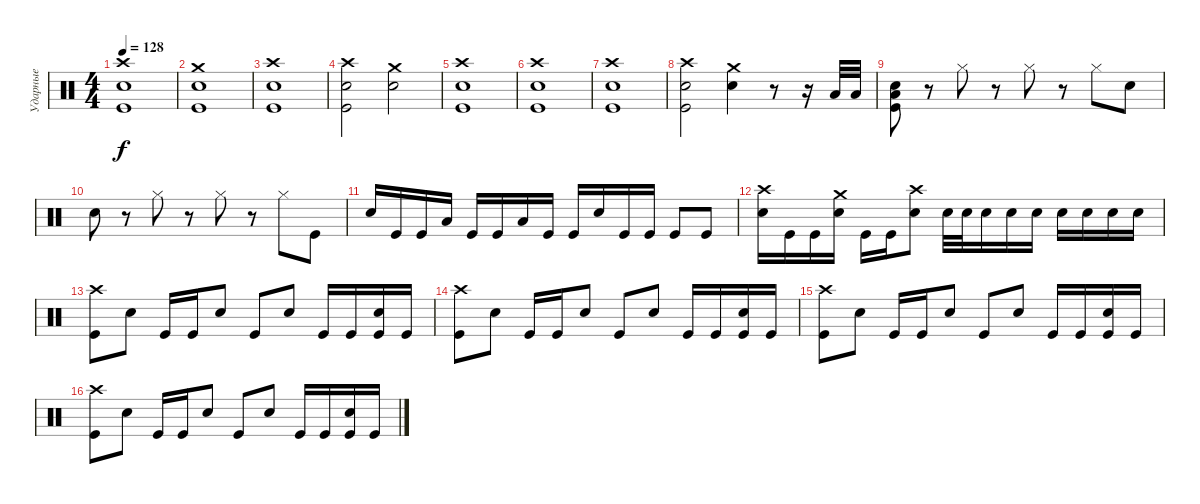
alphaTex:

\track ("Ударные" "Ударные") {instrument percussion}
\staff {score}
\articulation defaults
\ts (4 4)
\tempo 128
\clef neutral
\ks c
("Crash high (hit)" "Electric Snare (hit)" "Kick (hit)").1{dy f} |
("Crash medium (hit)" "Electric Snare (hit)" "Kick (hit)").1 |
("Crash high (hit)" "Electric Snare (hit)" "Kick (hit)").1 |
("Crash high (hit)" "Electric Snare (hit)" "Kick (hit)").2 ("Crash medium (hit)" "Electric Snare (hit)").2 |
("Crash high (hit)" "Electric Snare (hit)" "Kick (hit)").1 |
("Crash high (hit)" "Electric Snare (hit)" "Kick (hit)").1 |
("Crash high (hit)" "Electric Snare (hit)" "Kick (hit)").1 |
("Crash high (hit)" "Electric Snare (hit)" "Kick (hit)").2 ("Crash medium (hit)" "Electric Snare (hit)").4 r.8 r.16 "Low Tom (hit)".32 "Low Tom (hit)".32 |
("Electric Snare (hit)" "Low Tom (hit)" "Kick (hit)").8 r.8 "Hi-Hat (closed)".8 r.8 "Hi-Hat (closed)".8 r.8 "Hi-Hat (closed)".8 "Electric Snare (hit)".8 |
"Electric Snare (hit)".8 r.8 "Hi-Hat (closed)".8 r.8 "Hi-Hat (closed)".8 r.8 "Hi-Hat (closed)".8 "Kick (hit)".8 |
"Electric Snare (hit)".16 "Kick (hit)".16 "Kick (hit)".16 "Low Tom (hit)".16 "Kick (hit)".16 "Kick (hit)".16 "Low Tom (hit)".16 "Kick (hit)".16 "Kick (hit)".16 "Electric Snare (hit)".16 "Kick (hit)".16 "Kick (hit)".16 "Kick (hit)".8 "Kick (hit)".8 |
("Crash high (hit)" "Electric Snare (hit)").16 "Kick (hit)".16 "Kick (hit)".16 ("Crash medium (hit)" "Electric Snare (hit)").16 "Kick (hit)".16 "Kick (hit)".16 ("Crash high (hit)" "Electric Snare (hit)").8 "Electric Snare (hit)".32 "Electric Snare (hit)".32 "Electric Snare (hit)".16 "Electric Snare (hit)".16 "Electric Snare (hit)".16 "Electric Snare (hit)".16 "Electric Snare (hit)".16 "Electric Snare (hit)".16 "Electric Snare (hit)".16 |
("Crash high (hit)" "Kick (hit)").8 "Electric Snare (hit)".8 "Kick (hit)".16 "Kick (hit)".16 "Electric Snare (hit)".8 "Kick (hit)".8 "Electric Snare (hit)".8 "Kick (hit)".16 "Kick (hit)".16 ("Electric Snare (hit)" "Kick (hit)").16 "Kick (hit)".16 |
("Crash high (hit)" "Kick (hit)").8 "Electric Snare (hit)".8 "Kick (hit)".16 "Kick (hit)".16 "Electric Snare (hit)".8 "Kick (hit)".8 "Electric Snare (hit)".8 "Kick (hit)".16 "Kick (hit)".16 ("Electric Snare (hit)" "Kick (hit)").16 "Kick (hit)".16 |
("Crash high (hit)" "Kick (hit)").8 "Electric Snare (hit)".8 "Kick (hit)".16 "Kick (hit)".16 "Electric Snare (hit)".8 "Kick (hit)".8 "Electric Snare (hit)".8 "Kick (hit)".16 "Kick (hit)".16 ("Electric Snare (hit)" "Kick (hit)").16 "Kick (hit)".16 |
("Crash high (hit)" "Kick (hit)").8 "Electric Snare (hit)".8 "Kick (hit)".16 "Kick (hit)".16 "Electric Snare (hit)".8 "Kick (hit)".8 "Electric Snare (hit)".8 "Kick (hit)".16 "Kick (hit)".16 ("Electric Snare (hit)" "Kick (hit)").16 "Kick (hit)".16
